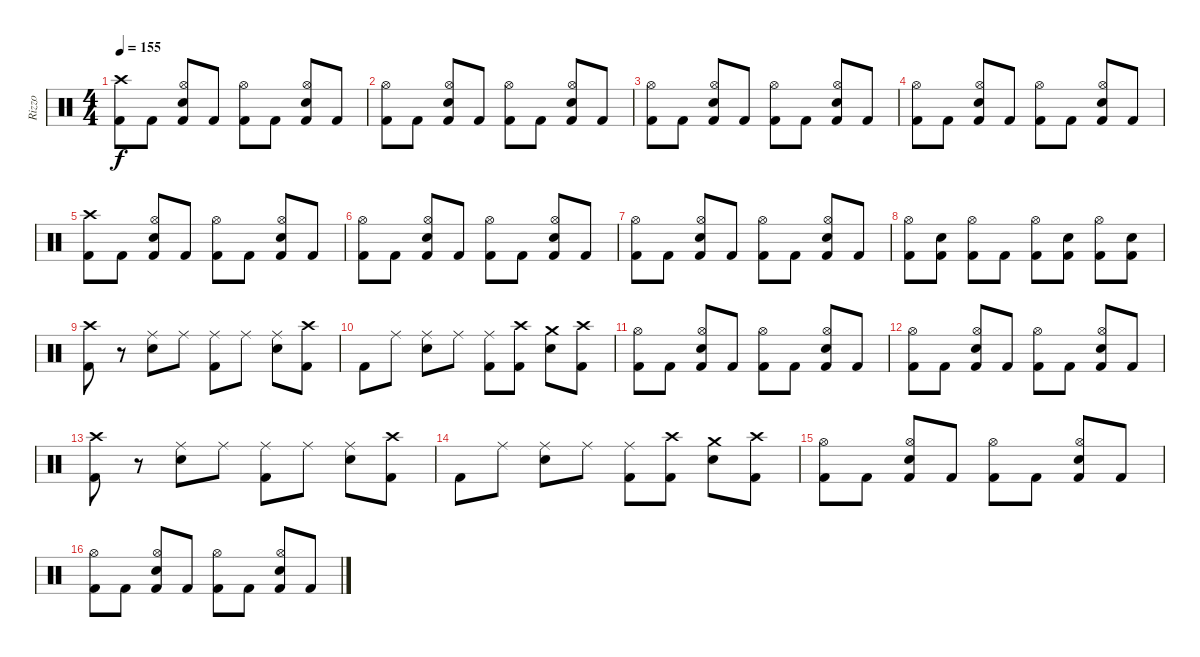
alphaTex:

\track ("Rizzo" "Rizzo") {instrument percussion}
\staff {score}
\articulation defaults
\ts (4 4)
\tempo 155
\clef neutral
\ks c
("Crash high (hit)" "Kick (hit) 2").8{dy f} "Kick (hit) 2".8 ("Hi-Hat (open)" "Electric Snare (hit)" "Kick (hit) 2").8 "Kick (hit) 2".8 ("Hi-Hat (open)" "Kick (hit) 2").8 "Kick (hit) 2".8 ("Hi-Hat (open)" "Electric Snare (hit)" "Kick (hit) 2").8 "Kick (hit) 2".8 |
("Hi-Hat (open)" "Kick (hit) 2").8 "Kick (hit) 2".8 ("Hi-Hat (open)" "Electric Snare (hit)" "Kick (hit) 2").8 "Kick (hit) 2".8 ("Hi-Hat (open)" "Kick (hit) 2").8 "Kick (hit) 2".8 ("Hi-Hat (open)" "Electric Snare (hit)" "Kick (hit) 2").8 "Kick (hit) 2".8 |
("Hi-Hat (open)" "Kick (hit) 2").8 "Kick (hit) 2".8 ("Hi-Hat (open)" "Electric Snare (hit)" "Kick (hit) 2").8 "Kick (hit) 2".8 ("Hi-Hat (open)" "Kick (hit) 2").8 "Kick (hit) 2".8 ("Hi-Hat (open)" "Electric Snare (hit)" "Kick (hit) 2").8 "Kick (hit) 2".8 |
("Hi-Hat (open)" "Kick (hit) 2").8 "Kick (hit) 2".8 ("Hi-Hat (open)" "Electric Snare (hit)" "Kick (hit) 2").8 "Kick (hit) 2".8 ("Hi-Hat (open)" "Kick (hit) 2").8 "Kick (hit) 2".8 ("Hi-Hat (open)" "Electric Snare (hit)" "Kick (hit) 2").8 "Kick (hit) 2".8 |
("Crash high (hit)" "Kick (hit) 2").8 "Kick (hit) 2".8 ("Hi-Hat (open)" "Electric Snare (hit)" "Kick (hit) 2").8 "Kick (hit) 2".8 ("Hi-Hat (open)" "Kick (hit) 2").8 "Kick (hit) 2".8 ("Hi-Hat (open)" "Electric Snare (hit)" "Kick (hit) 2").8 "Kick (hit) 2".8 |
("Hi-Hat (open)" "Kick (hit) 2").8 "Kick (hit) 2".8 ("Hi-Hat (open)" "Electric Snare (hit)" "Kick (hit) 2").8 "Kick (hit) 2".8 ("Hi-Hat (open)" "Kick (hit) 2").8 "Kick (hit) 2".8 ("Hi-Hat (open)" "Electric Snare (hit)" "Kick (hit) 2").8 "Kick (hit) 2".8 |
("Hi-Hat (open)" "Kick (hit) 2").8 "Kick (hit) 2".8 ("Hi-Hat (open)" "Electric Snare (hit)" "Kick (hit) 2").8 "Kick (hit) 2".8 ("Hi-Hat (open)" "Kick (hit) 2").8 "Kick (hit) 2".8 ("Hi-Hat (open)" "Electric Snare (hit)" "Kick (hit) 2").8 "Kick (hit) 2".8 |
("Hi-Hat (open)" "Kick (hit) 2").8 ("Electric Snare (hit)" "Kick (hit) 2").8 ("Hi-Hat (open)" "Kick (hit) 2").8 "Kick (hit) 2".8 ("Hi-Hat (open)" "Kick (hit) 2").8 ("Electric Snare (hit)" "Kick (hit) 2").8 ("Hi-Hat (open)" "Kick (hit) 2").8 ("Electric Snare (hit)" "Kick (hit) 2").8 |
("Crash high (hit)" "Kick (hit) 2").8 r.8 ("Ride (middle)" "Electric Snare (hit)").8 "Ride (middle)".8 ("Ride (middle)" "Kick (hit) 2").8 "Ride (middle)".8 ("Ride (middle)" "Electric Snare (hit)").8 ("Crash high (hit)" "Kick (hit) 2").8 |
"Kick (hit) 2".8 "Ride (middle)".8 ("Ride (middle)" "Electric Snare (hit)").8 "Ride (middle)".8 ("Ride (middle)" "Kick (hit) 2").8 ("Crash high (hit)" "Kick (hit) 2").8 ("Crash medium (hit)" "Electric Snare (hit)").8 ("Crash high (hit)" "Kick (hit) 2").8 |
("Hi-Hat (open)" "Kick (hit) 2").8 "Kick (hit) 2".8 ("Hi-Hat (open)" "Electric Snare (hit)" "Kick (hit) 2").8 "Kick (hit) 2".8 ("Hi-Hat (open)" "Kick (hit) 2").8 "Kick (hit) 2".8 ("Hi-Hat (open)" "Electric Snare (hit)" "Kick (hit) 2").8 "Kick (hit) 2".8 |
("Hi-Hat (open)" "Kick (hit) 2").8 "Kick (hit) 2".8 ("Hi-Hat (open)" "Electric Snare (hit)" "Kick (hit) 2").8 "Kick (hit) 2".8 ("Hi-Hat (open)" "Kick (hit) 2").8 "Kick (hit) 2".8 ("Hi-Hat (open)" "Electric Snare (hit)" "Kick (hit) 2").8 "Kick (hit) 2".8 |
("Crash high (hit)" "Kick (hit) 2").8 r.8 ("Ride (middle)" "Electric Snare (hit)").8 "Ride (middle)".8 ("Ride (middle)" "Kick (hit) 2").8 "Ride (middle)".8 ("Ride (middle)" "Electric Snare (hit)").8 ("Crash high (hit)" "Kick (hit) 2").8 |
"Kick (hit) 2".8 "Ride (middle)".8 ("Ride (middle)" "Electric Snare (hit)").8 "Ride (middle)".8 ("Ride (middle)" "Kick (hit) 2").8 ("Crash high (hit)" "Kick (hit) 2").8 ("Crash medium (hit)" "Electric Snare (hit)").8 ("Crash high (hit)" "Kick (hit) 2").8 |
("Hi-Hat (open)" "Kick (hit) 2").8 "Kick (hit) 2".8 ("Hi-Hat (open)" "Electric Snare (hit)" "Kick (hit) 2").8 "Kick (hit) 2".8 ("Hi-Hat (open)" "Kick (hit) 2").8 "Kick (hit) 2".8 ("Hi-Hat (open)" "Electric Snare (hit)" "Kick (hit) 2").8 "Kick (hit) 2".8 |
("Hi-Hat (open)" "Kick (hit) 2").8 "Kick (hit) 2".8 ("Hi-Hat (open)" "Electric Snare (hit)" "Kick (hit) 2").8 "Kick (hit) 2".8 ("Hi-Hat (open)" "Kick (hit) 2").8 "Kick (hit) 2".8 ("Hi-Hat (open)" "Electric Snare (hit)" "Kick (hit) 2").8 "Kick (hit) 2".8
